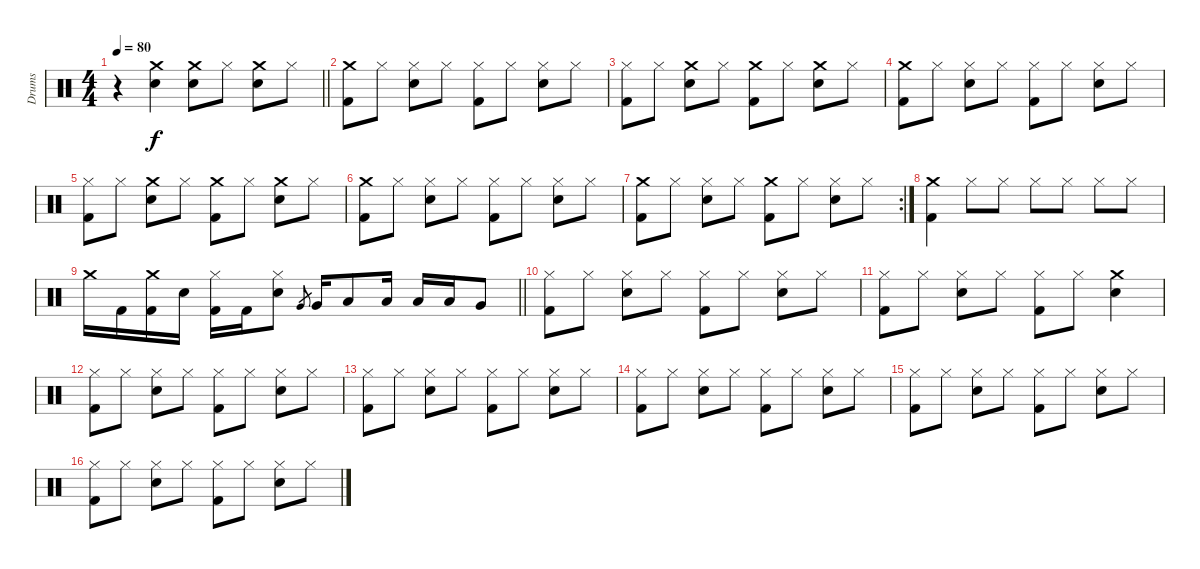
\track ("Drums" "Drums") {instrument percussion}
\staff {score}
\articulation defaults
\ts (4 4)
\tempo 80
\clef neutral
\barLineRight lightlight
\ks c
r.4{dy f} ("Crash medium (hit)" "Snare (hit) 2").4 ("Crash medium (hit)" "Snare (hit) 2").8 "Hi-Hat (closed)".8 ("Crash medium (hit)" "Snare (hit) 2").8 "Hi-Hat (closed)".8 |
("Crash medium (hit)" "Kick (hit) 2").8 "Hi-Hat (closed)".8 ("Hi-Hat (closed)" "Snare (hit) 2").8 "Hi-Hat (closed)".8 ("Hi-Hat (closed)" "Kick (hit) 2").8 "Hi-Hat (closed)".8 ("Hi-Hat (closed)" "Snare (hit) 2").8 "Hi-Hat (closed)".8 |
("Hi-Hat (closed)" "Kick (hit) 2").8 "Hi-Hat (closed)".8 ("Crash medium (hit)" "Snare (hit) 2").8 "Hi-Hat (closed)".8 ("Crash medium (hit)" "Kick (hit) 2").8 "Hi-Hat (closed)".8 ("Crash medium (hit)" "Snare (hit) 2").8 "Hi-Hat (closed)".8 |
("Crash medium (hit)" "Kick (hit) 2").8 "Hi-Hat (closed)".8 ("Hi-Hat (closed)" "Snare (hit) 2").8 "Hi-Hat (closed)".8 ("Hi-Hat (closed)" "Kick (hit) 2").8 "Hi-Hat (closed)".8 ("Hi-Hat (closed)" "Snare (hit) 2").8 "Hi-Hat (closed)".8 |
("Hi-Hat (closed)" "Kick (hit) 2").8 "Hi-Hat (closed)".8 ("Crash medium (hit)" "Snare (hit) 2").8 "Hi-Hat (closed)".8 ("Crash medium (hit)" "Kick (hit) 2").8 "Hi-Hat (closed)".8 ("Crash medium (hit)" "Snare (hit) 2").8 "Hi-Hat (closed)".8 |
("Crash medium (hit)" "Kick (hit) 2").8 "Hi-Hat (closed)".8 ("Hi-Hat (closed)" "Snare (hit) 2").8 "Hi-Hat (closed)".8 ("Hi-Hat (closed)" "Kick (hit) 2").8 "Hi-Hat (closed)".8 ("Hi-Hat (closed)" "Snare (hit) 2").8 "Hi-Hat (closed)".8 |
\rc 2
("Crash medium (hit)" "Kick (hit) 2").8 "Hi-Hat (closed)".8 ("Hi-Hat (closed)" "Snare (hit) 2").8 "Hi-Hat (closed)".8 ("Crash medium (hit)" "Kick (hit) 2").8 "Hi-Hat (closed)".8 ("Hi-Hat (closed)" "Snare (hit) 2").8 "Hi-Hat (closed)".8 |
("Crash medium (hit)" "Kick (hit) 2").4 "Hi-Hat (closed)".8 "Hi-Hat (closed)".8 "Hi-Hat (closed)".8 "Hi-Hat (closed)".8 "Hi-Hat (closed)".8 "Hi-Hat (closed)".8 |
\barLineRight lightlight "Crash medium (hit)".16 "Kick (hit) 2".16
("Crash medium (hit)" "Kick (hit) 2").16 "Snare (hit) 2".16 ("Hi-Hat (closed)" "Kick (hit) 2").16 "Kick (hit) 2".16 ("Hi-Hat (closed)" "Snare (hit) 2").8 "Very Low Tom (hit)".8{gr} "Very Low Tom (hit)".16 "Low Tom (hit)".8 "Low Tom (hit)".16 "Low Tom (hit)".16 "Low Tom (hit)".16 "Very Low Tom (hit)".8 |
("Hi-Hat (closed)" "Kick (hit) 2").8 "Hi-Hat (closed)".8 ("Hi-Hat (closed)" "Snare (hit) 2").8 "Hi-Hat (closed)".8 ("Hi-Hat (closed)" "Kick (hit) 2").8 "Hi-Hat (closed)".8 ("Hi-Hat (closed)" "Snare (hit) 2").8 "Hi-Hat (closed)".8 |
("Hi-Hat (closed)" "Kick (hit) 2").8 "Hi-Hat (closed)".8 ("Hi-Hat (closed)" "Snare (hit) 2").8 "Hi-Hat (closed)".8 ("Hi-Hat (closed)" "Kick (hit) 2").8 "Hi-Hat (closed)".8 ("Crash medium (hit)" "Snare (hit) 2").4 |
("Hi-Hat (closed)" "Kick (hit) 2").8 "Hi-Hat (closed)".8 ("Hi-Hat (closed)" "Snare (hit) 2").8 "Hi-Hat (closed)".8 ("Hi-Hat (closed)" "Kick (hit) 2").8 "Hi-Hat (closed)".8 ("Hi-Hat (closed)" "Snare (hit) 2").8 "Hi-Hat (closed)".8 |
("Hi-Hat (closed)" "Kick (hit) 2").8 "Hi-Hat (closed)".8 ("Hi-Hat (closed)" "Snare (hit) 2").8 "Hi-Hat (closed)".8 ("Hi-Hat (closed)" "Kick (hit) 2").8 "Hi-Hat (closed)".8 ("Hi-Hat (closed)" "Snare (hit) 2").8 "Hi-Hat (closed)".8 |
("Hi-Hat (closed)" "Kick (hit) 2").8 "Hi-Hat (closed)".8 ("Hi-Hat (closed)" "Snare (hit) 2").8 "Hi-Hat (closed)".8 ("Hi-Hat (closed)" "Kick (hit) 2").8 "Hi-Hat (closed)".8 ("Hi-Hat (closed)" "Snare (hit) 2").8 "Hi-Hat (closed)".8 |
("Hi-Hat (closed)" "Kick (hit) 2").8 "Hi-Hat (closed)".8 ("Hi-Hat (closed)" "Snare (hit) 2").8 "Hi-Hat (closed)".8 ("Hi-Hat (closed)" "Kick (hit) 2").8 "Hi-Hat (closed)".8 ("Hi-Hat (closed)" "Snare (hit) 2").8 "Hi-Hat (closed)".8 |
("Hi-Hat (closed)" "Kick (hit) 2").8 "Hi-Hat (closed)".8 ("Hi-Hat (closed)" "Snare (hit) 2").8 "Hi-Hat (closed)".8 ("Hi-Hat (closed)" "Kick (hit) 2").8 "Hi-Hat (closed)".8 ("Hi-Hat (closed)" "Snare (hit) 2").8 "Hi-Hat (closed)".8
